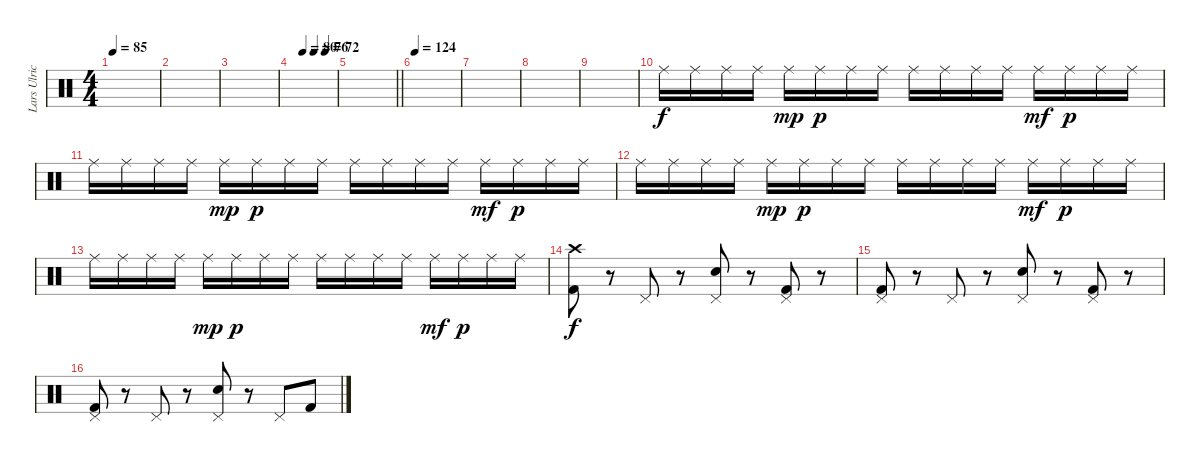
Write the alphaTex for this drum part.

\track ("Lars Ulrich" "Lars Ulric") {instrument percussion}
\staff {score}
\articulation defaults
\ts (4 4)
\tempo 85
\clef neutral
\ks c
|
|
|
\tempo (80 0.25)
\tempo (76 0.5)
\tempo (72 0.75)
|
\barLineRight lightlight
|
\tempo 124
|
|
|
|
"Ride (middle)".16 "Ride (middle)".16 "Ride (middle)".16 "Ride (middle)".16 "Ride (middle)".16{dy mp} "Ride (middle)".16{dy p} "Ride (middle)".16 "Ride (middle)".16 "Ride (middle)".16 "Ride (middle)".16 "Ride (middle)".16 "Ride (middle)".16 "Ride (middle)".16{dy mf} "Ride (middle)".16{dy p} "Ride (middle)".16 "Ride (middle)".16 |
"Ride (middle)".16 "Ride (middle)".16 "Ride (middle)".16 "Ride (middle)".16 "Ride (middle)".16{dy mp} "Ride (middle)".16{dy p} "Ride (middle)".16 "Ride (middle)".16 "Ride (middle)".16 "Ride (middle)".16 "Ride (middle)".16 "Ride (middle)".16 "Ride (middle)".16{dy mf} "Ride (middle)".16{dy p} "Ride (middle)".16 "Ride (middle)".16 |
"Ride (middle)".16 "Ride (middle)".16 "Ride (middle)".16 "Ride (middle)".16 "Ride (middle)".16{dy mp} "Ride (middle)".16{dy p} "Ride (middle)".16 "Ride (middle)".16 "Ride (middle)".16 "Ride (middle)".16 "Ride (middle)".16 "Ride (middle)".16 "Ride (middle)".16{dy mf} "Ride (middle)".16{dy p} "Ride (middle)".16 "Ride (middle)".16 |
"Ride (middle)".16 "Ride (middle)".16 "Ride (middle)".16 "Ride (middle)".16 "Ride (middle)".16{dy mp} "Ride (middle)".16{dy p} "Ride (middle)".16 "Ride (middle)".16 "Ride (middle)".16 "Ride (middle)".16 "Ride (middle)".16 "Ride (middle)".16 "Ride (middle)".16{dy mf} "Ride (middle)".16{dy p} "Ride (middle)".16 "Ride (middle)".16 |
("Crash high (hit)" "Kick (hit) 2").8{dy f} r.8 "Pedal Hi-Hat (hit)".8 r.8 ("Pedal Hi-Hat (hit)" "Electric Snare (hit)").8 r.8 ("Pedal Hi-Hat (hit)" "Kick (hit) 2").8 r.8 |
("Pedal Hi-Hat (hit)" "Kick (hit) 2").8 r.8 "Pedal Hi-Hat (hit)".8 r.8 ("Pedal Hi-Hat (hit)" "Electric Snare (hit)").8 r.8 ("Pedal Hi-Hat (hit)" "Kick (hit) 2").8 r.8 |
("Pedal Hi-Hat (hit)" "Kick (hit) 2").8 r.8 "Pedal Hi-Hat (hit)".8 r.8 ("Pedal Hi-Hat (hit)" "Electric Snare (hit)").8 r.8 "Pedal Hi-Hat (hit)".8 "Kick (hit) 2".8
